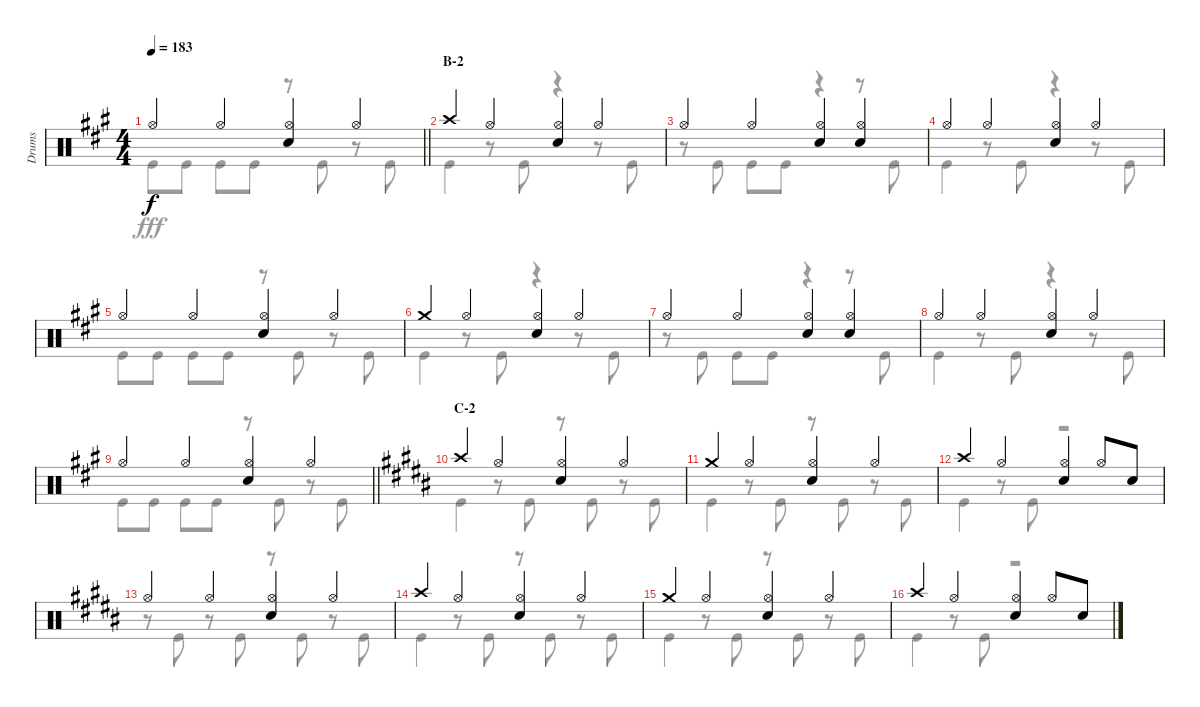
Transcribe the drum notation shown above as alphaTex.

\track ("Drums" "Drums") {instrument percussion}
\staff {score}
\articulation defaults
\voice
\ts (4 4)
\tempo 183
\clef neutral
\barLineRight lightlight
\ks a "Hi-Hat (open)".4{dy f} "Hi-Hat (open)".4
("Hi-Hat (open)" "Snare (hit) 2").4 "Hi-Hat (open)".4 |
\section ("" "B-2")
"Crash high (hit)".4 "Hi-Hat (open)".4 ("Hi-Hat (open)" "Snare (hit) 2").4 "Hi-Hat (open)".4 |
"Hi-Hat (open)".4 "Hi-Hat (open)".4 ("Hi-Hat (open)" "Snare (hit) 2").4 ("Hi-Hat (open)" "Snare (hit) 2").4 |
"Hi-Hat (open)".4 "Hi-Hat (open)".4 ("Hi-Hat (open)" "Snare (hit) 2").4 "Hi-Hat (open)".4 |
"Hi-Hat (open)".4 "Hi-Hat (open)".4 ("Hi-Hat (open)" "Snare (hit) 2").4 "Hi-Hat (open)".4 |
"Crash medium (hit)".4 "Hi-Hat (open)".4 ("Hi-Hat (open)" "Snare (hit) 2").4 "Hi-Hat (open)".4 |
"Hi-Hat (open)".4 "Hi-Hat (open)".4 ("Hi-Hat (open)" "Snare (hit) 2").4 ("Hi-Hat (open)" "Snare (hit) 2").4 |
"Hi-Hat (open)".4 "Hi-Hat (open)".4 ("Hi-Hat (open)" "Snare (hit) 2").4 "Hi-Hat (open)".4 |
\barLineRight lightlight "Hi-Hat (open)".4 "Hi-Hat (open)".4
("Hi-Hat (open)" "Snare (hit) 2").4 "Hi-Hat (open)".4 |
\section ("" "C-2")
\ks b "Crash high (hit)".4 "Hi-Hat (open)".4
("Hi-Hat (open)" "Snare (hit) 2").4 "Hi-Hat (open)".4 |
"Crash medium (hit)".4 "Hi-Hat (open)".4 ("Hi-Hat (open)" "Snare (hit) 2").4 "Hi-Hat (open)".4 |
"Crash high (hit)".4 "Hi-Hat (open)".4 ("Hi-Hat (open)" "Snare (hit) 2").4 "Hi-Hat (open)".8 "Snare (hit) 2".8 |
"Hi-Hat (open)".4 "Hi-Hat (open)".4 ("Hi-Hat (open)" "Snare (hit) 2").4 "Hi-Hat (open)".4 |
"Crash high (hit)".4 "Hi-Hat (open)".4 ("Hi-Hat (open)" "Snare (hit) 2").4 "Hi-Hat (open)".4 |
"Crash medium (hit)".4 "Hi-Hat (open)".4 ("Hi-Hat (open)" "Snare (hit) 2").4 "Hi-Hat (open)".4 |
"Crash high (hit)".4 "Hi-Hat (open)".4 ("Hi-Hat (open)" "Snare (hit) 2").4 "Hi-Hat (open)".8 "Snare (hit) 2".8
\voice
\clef neutral
\ottava regular
\simile none
\barLineRight lightlight
\ks a "Kick (hit)".8{dy fff} "Kick (hit)".8 "Kick (hit)".8 "Kick (hit)".8
r.8 "Kick (hit)".8 r.8 "Kick (hit)".8 |
"Kick (hit)".4 r.8 "Kick (hit)".8 r.4 r.8 "Kick (hit)".8 |
r.8 "Kick (hit)".8 "Kick (hit)".8 "Kick (hit)".8 r.4 r.8 "Kick (hit)".8 |
"Kick (hit)".4 r.8 "Kick (hit)".8 r.4 r.8 "Kick (hit)".8 |
"Kick (hit)".8 "Kick (hit)".8 "Kick (hit)".8 "Kick (hit)".8 r.8 "Kick (hit)".8 r.8 "Kick (hit)".8 |
"Kick (hit)".4 r.8 "Kick (hit)".8 r.4 r.8 "Kick (hit)".8 |
r.8 "Kick (hit)".8 "Kick (hit)".8 "Kick (hit)".8 r.4 r.8 "Kick (hit)".8 |
"Kick (hit)".4 r.8 "Kick (hit)".8 r.4 r.8 "Kick (hit)".8 |
\barLineRight lightlight "Kick (hit)".8 "Kick (hit)".8 "Kick (hit)".8 "Kick (hit)".8
r.8 "Kick (hit)".8 r.8 "Kick (hit)".8 |
\ks b "Kick (hit)".4
r.8 "Kick (hit)".8 r.8 "Kick (hit)".8 r.8 "Kick (hit)".8 |
"Kick (hit)".4 r.8 "Kick (hit)".8 r.8 "Kick (hit)".8 r.8 "Kick (hit)".8 |
"Kick (hit)".4 r.8 "Kick (hit)".8 r.2 |
r.8 "Kick (hit)".8 r.8 "Kick (hit)".8 r.8 "Kick (hit)".8 r.8 "Kick (hit)".8 |
"Kick (hit)".4 r.8 "Kick (hit)".8 r.8 "Kick (hit)".8 r.8 "Kick (hit)".8 |
"Kick (hit)".4 r.8 "Kick (hit)".8 r.8 "Kick (hit)".8 r.8 "Kick (hit)".8 |
"Kick (hit)".4 r.8 "Kick (hit)".8 r.2
